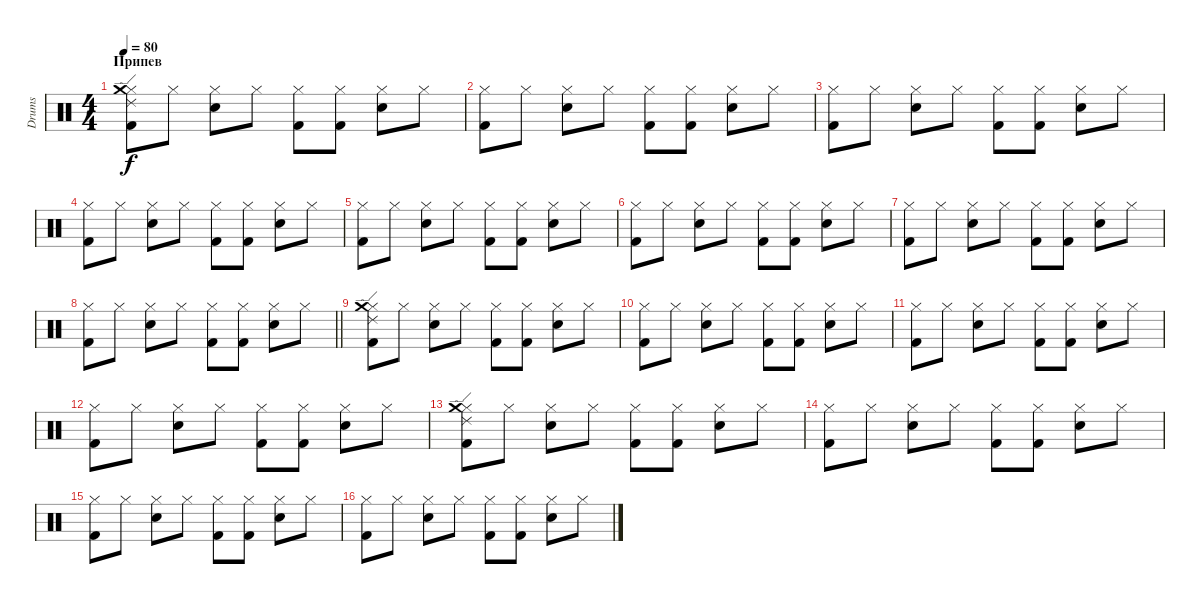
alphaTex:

\track ("Drums" "Drums") {instrument percussion}
\staff {score}
\articulation defaults
\ts (4 4)
\section ("" "Припев")
\tempo 80
\clef neutral
\ks c
("Hi-Hat (closed)" "Kick (hit) 2" "Crash medium (hit)" "Ride (edge) 2").8{dy f} "Hi-Hat (closed)".8 ("Hi-Hat (closed)" "Snare (hit) 2").8 "Hi-Hat (closed)".8 ("Hi-Hat (closed)" "Kick (hit) 2").8 ("Hi-Hat (closed)" "Kick (hit) 2").8 ("Hi-Hat (closed)" "Snare (hit) 2").8 "Hi-Hat (closed)".8 |
("Hi-Hat (closed)" "Kick (hit) 2").8 "Hi-Hat (closed)".8 ("Hi-Hat (closed)" "Snare (hit) 2").8 "Hi-Hat (closed)".8 ("Hi-Hat (closed)" "Kick (hit) 2").8 ("Hi-Hat (closed)" "Kick (hit) 2").8 ("Hi-Hat (closed)" "Snare (hit) 2").8 "Hi-Hat (closed)".8 |
("Hi-Hat (closed)" "Kick (hit) 2").8 "Hi-Hat (closed)".8 ("Hi-Hat (closed)" "Snare (hit) 2").8 "Hi-Hat (closed)".8 ("Hi-Hat (closed)" "Kick (hit) 2").8 ("Hi-Hat (closed)" "Kick (hit) 2").8 ("Hi-Hat (closed)" "Snare (hit) 2").8 "Hi-Hat (closed)".8 |
("Hi-Hat (closed)" "Kick (hit) 2").8 "Hi-Hat (closed)".8 ("Hi-Hat (closed)" "Snare (hit) 2").8 "Hi-Hat (closed)".8 ("Hi-Hat (closed)" "Kick (hit) 2").8 ("Hi-Hat (closed)" "Kick (hit) 2").8 ("Hi-Hat (closed)" "Snare (hit) 2").8 "Hi-Hat (closed)".8 |
("Hi-Hat (closed)" "Kick (hit) 2").8 "Hi-Hat (closed)".8 ("Hi-Hat (closed)" "Snare (hit) 2").8 "Hi-Hat (closed)".8 ("Hi-Hat (closed)" "Kick (hit) 2").8 ("Hi-Hat (closed)" "Kick (hit) 2").8 ("Hi-Hat (closed)" "Snare (hit) 2").8 "Hi-Hat (closed)".8 |
("Hi-Hat (closed)" "Kick (hit) 2").8 "Hi-Hat (closed)".8 ("Hi-Hat (closed)" "Snare (hit) 2").8 "Hi-Hat (closed)".8 ("Hi-Hat (closed)" "Kick (hit) 2").8 ("Hi-Hat (closed)" "Kick (hit) 2").8 ("Hi-Hat (closed)" "Snare (hit) 2").8 "Hi-Hat (closed)".8 |
("Hi-Hat (closed)" "Kick (hit) 2").8 "Hi-Hat (closed)".8 ("Hi-Hat (closed)" "Snare (hit) 2").8 "Hi-Hat (closed)".8 ("Hi-Hat (closed)" "Kick (hit) 2").8 ("Hi-Hat (closed)" "Kick (hit) 2").8 ("Hi-Hat (closed)" "Snare (hit) 2").8 "Hi-Hat (closed)".8 |
\barLineRight lightlight
("Hi-Hat (closed)" "Kick (hit) 2").8 "Hi-Hat (closed)".8 ("Hi-Hat (closed)" "Snare (hit) 2").8 "Hi-Hat (closed)".8 ("Hi-Hat (closed)" "Kick (hit) 2").8 ("Hi-Hat (closed)" "Kick (hit) 2").8 ("Hi-Hat (closed)" "Snare (hit) 2").8 "Hi-Hat (closed)".8 |
("Hi-Hat (closed)" "Kick (hit) 2" "Crash medium (hit)" "Ride (edge) 2").8 "Hi-Hat (closed)".8 ("Hi-Hat (closed)" "Snare (hit) 2").8 "Hi-Hat (closed)".8 ("Hi-Hat (closed)" "Kick (hit) 2").8 ("Hi-Hat (closed)" "Kick (hit) 2").8 ("Hi-Hat (closed)" "Snare (hit) 2").8 "Hi-Hat (closed)".8 |
("Hi-Hat (closed)" "Kick (hit) 2").8 "Hi-Hat (closed)".8 ("Hi-Hat (closed)" "Snare (hit) 2").8 "Hi-Hat (closed)".8 ("Hi-Hat (closed)" "Kick (hit) 2").8 ("Hi-Hat (closed)" "Kick (hit) 2").8 ("Hi-Hat (closed)" "Snare (hit) 2").8 "Hi-Hat (closed)".8 |
("Hi-Hat (closed)" "Kick (hit) 2").8 "Hi-Hat (closed)".8 ("Hi-Hat (closed)" "Snare (hit) 2").8 "Hi-Hat (closed)".8 ("Hi-Hat (closed)" "Kick (hit) 2").8 ("Hi-Hat (closed)" "Kick (hit) 2").8 ("Hi-Hat (closed)" "Snare (hit) 2").8 "Hi-Hat (closed)".8 |
("Hi-Hat (closed)" "Kick (hit) 2").8 "Hi-Hat (closed)".8 ("Hi-Hat (closed)" "Snare (hit) 2").8 "Hi-Hat (closed)".8 ("Hi-Hat (closed)" "Kick (hit) 2").8 ("Hi-Hat (closed)" "Kick (hit) 2").8 ("Hi-Hat (closed)" "Snare (hit) 2").8 "Hi-Hat (closed)".8 |
("Hi-Hat (closed)" "Kick (hit) 2" "Crash medium (hit)" "Ride (edge) 2").8 "Hi-Hat (closed)".8 ("Hi-Hat (closed)" "Snare (hit) 2").8 "Hi-Hat (closed)".8 ("Hi-Hat (closed)" "Kick (hit) 2").8 ("Hi-Hat (closed)" "Kick (hit) 2").8 ("Hi-Hat (closed)" "Snare (hit) 2").8 "Hi-Hat (closed)".8 |
("Hi-Hat (closed)" "Kick (hit) 2").8 "Hi-Hat (closed)".8 ("Hi-Hat (closed)" "Snare (hit) 2").8 "Hi-Hat (closed)".8 ("Hi-Hat (closed)" "Kick (hit) 2").8 ("Hi-Hat (closed)" "Kick (hit) 2").8 ("Hi-Hat (closed)" "Snare (hit) 2").8 "Hi-Hat (closed)".8 |
("Hi-Hat (closed)" "Kick (hit) 2").8 "Hi-Hat (closed)".8 ("Hi-Hat (closed)" "Snare (hit) 2").8 "Hi-Hat (closed)".8 ("Hi-Hat (closed)" "Kick (hit) 2").8 ("Hi-Hat (closed)" "Kick (hit) 2").8 ("Hi-Hat (closed)" "Snare (hit) 2").8 "Hi-Hat (closed)".8 |
("Hi-Hat (closed)" "Kick (hit) 2").8 "Hi-Hat (closed)".8 ("Hi-Hat (closed)" "Snare (hit) 2").8 "Hi-Hat (closed)".8 ("Hi-Hat (closed)" "Kick (hit) 2").8 ("Hi-Hat (closed)" "Kick (hit) 2").8 ("Hi-Hat (closed)" "Snare (hit) 2").8 "Hi-Hat (closed)".8
